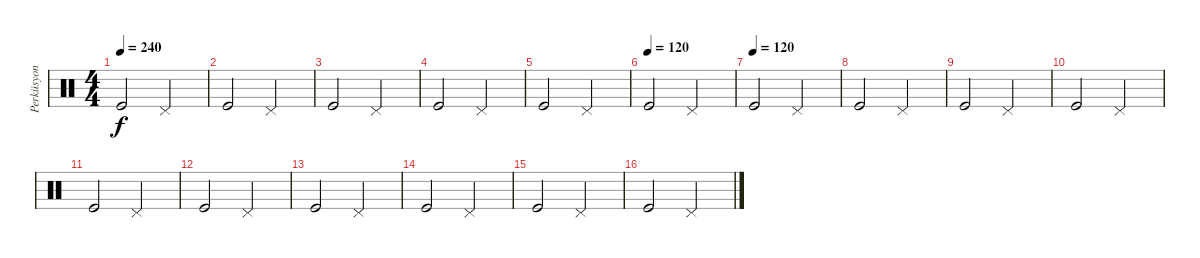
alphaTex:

\track ("Perküsyon" "Perküsyon") {instrument percussion}
\staff {score}
\articulation defaults
\ts (4 4)
\tempo 240
\clef neutral
\ks c "Kick (hit)".2{dy f} "Pedal Hi-Hat (hit)".2
|
"Kick (hit)".2 "Pedal Hi-Hat (hit)".2 |
"Kick (hit)".2 "Pedal Hi-Hat (hit)".2 |
"Kick (hit)".2 "Pedal Hi-Hat (hit)".2 |
"Kick (hit)".2 "Pedal Hi-Hat (hit)".2 |
\tempo (120)
"Kick (hit)".2 "Pedal Hi-Hat (hit)".2 |
\tempo (120)
"Kick (hit)".2 "Pedal Hi-Hat (hit)".2 |
"Kick (hit)".2 "Pedal Hi-Hat (hit)".2 |
"Kick (hit)".2 "Pedal Hi-Hat (hit)".2 |
"Kick (hit)".2 "Pedal Hi-Hat (hit)".2 |
"Kick (hit)".2 "Pedal Hi-Hat (hit)".2 |
"Kick (hit)".2 "Pedal Hi-Hat (hit)".2 |
"Kick (hit)".2 "Pedal Hi-Hat (hit)".2 |
"Kick (hit)".2 "Pedal Hi-Hat (hit)".2 |
"Kick (hit)".2 "Pedal Hi-Hat (hit)".2 |
"Kick (hit)".2 "Pedal Hi-Hat (hit)".2
